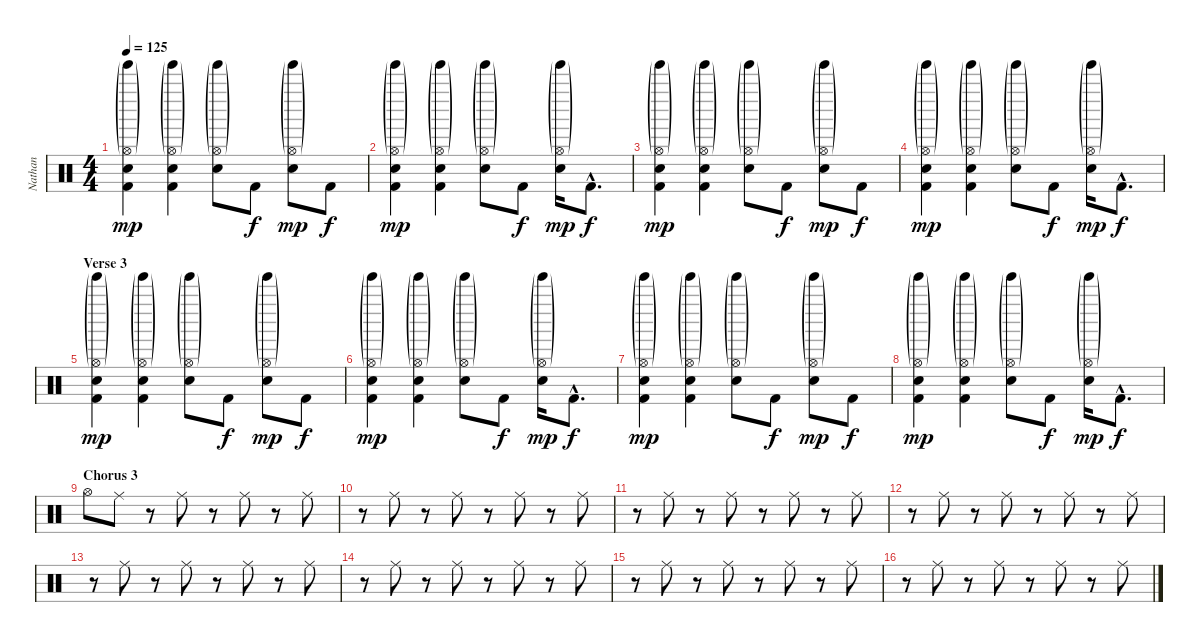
\track ("Nathan" "Nathan") {instrument percussion}
\staff {score}
\articulation defaults
\ts (4 4)
\section ("" "")
\tempo 125
\clef neutral
\ks c
("Hi-Hat (open)"{g} "Tinkle Bell (hit)"{g} "Electric Snare (hit)" "Kick (hit) 2").4{dy mp} ("Hi-Hat (open)"{g} "Tinkle Bell (hit)"{g} "Electric Snare (hit)" "Kick (hit) 2").4 ("Hi-Hat (open)"{g} "Tinkle Bell (hit)"{g} "Electric Snare (hit)").8 "Kick (hit) 2".8{dy f} ("Hi-Hat (open)"{g} "Tinkle Bell (hit)"{g} "Electric Snare (hit)").8{dy mp} "Kick (hit) 2".8{dy f} |
("Hi-Hat (open)"{g} "Tinkle Bell (hit)"{g} "Electric Snare (hit)" "Kick (hit) 2").4{dy mp} ("Hi-Hat (open)"{g} "Tinkle Bell (hit)"{g} "Electric Snare (hit)" "Kick (hit) 2").4 ("Hi-Hat (open)"{g} "Tinkle Bell (hit)"{g} "Electric Snare (hit)").8 "Kick (hit) 2".8{dy f} ("Hi-Hat (open)"{g} "Tinkle Bell (hit)"{g} "Electric Snare (hit)").16{dy mp} "Kick (hit) 2"{hac}.8{d dy f} |
("Hi-Hat (open)"{g} "Tinkle Bell (hit)"{g} "Electric Snare (hit)" "Kick (hit) 2").4{dy mp} ("Hi-Hat (open)"{g} "Tinkle Bell (hit)"{g} "Electric Snare (hit)" "Kick (hit) 2").4 ("Hi-Hat (open)"{g} "Tinkle Bell (hit)"{g} "Electric Snare (hit)").8 "Kick (hit) 2".8{dy f} ("Hi-Hat (open)"{g} "Tinkle Bell (hit)"{g} "Electric Snare (hit)").8{dy mp} "Kick (hit) 2".8{dy f} |
("Hi-Hat (open)"{g} "Tinkle Bell (hit)"{g} "Electric Snare (hit)" "Kick (hit) 2").4{dy mp} ("Hi-Hat (open)"{g} "Tinkle Bell (hit)"{g} "Electric Snare (hit)" "Kick (hit) 2").4 ("Hi-Hat (open)"{g} "Tinkle Bell (hit)"{g} "Electric Snare (hit)").8 "Kick (hit) 2".8{dy f} ("Hi-Hat (open)"{g} "Tinkle Bell (hit)"{g} "Electric Snare (hit)").16{dy mp} "Kick (hit) 2"{hac}.8{d dy f} |
\section ("" "Verse 3")
("Hi-Hat (open)"{g} "Tinkle Bell (hit)"{g} "Electric Snare (hit)" "Kick (hit) 2").4{dy mp} ("Hi-Hat (open)"{g} "Tinkle Bell (hit)"{g} "Electric Snare (hit)" "Kick (hit) 2").4 ("Hi-Hat (open)"{g} "Tinkle Bell (hit)"{g} "Electric Snare (hit)").8 "Kick (hit) 2".8{dy f} ("Hi-Hat (open)"{g} "Tinkle Bell (hit)"{g} "Electric Snare (hit)").8{dy mp} "Kick (hit) 2".8{dy f} |
("Hi-Hat (open)"{g} "Tinkle Bell (hit)"{g} "Electric Snare (hit)" "Kick (hit) 2").4{dy mp} ("Hi-Hat (open)"{g} "Tinkle Bell (hit)"{g} "Electric Snare (hit)" "Kick (hit) 2").4 ("Hi-Hat (open)"{g} "Tinkle Bell (hit)"{g} "Electric Snare (hit)").8 "Kick (hit) 2".8{dy f} ("Hi-Hat (open)"{g} "Tinkle Bell (hit)"{g} "Electric Snare (hit)").16{dy mp} "Kick (hit) 2"{hac}.8{d dy f} |
("Hi-Hat (open)"{g} "Tinkle Bell (hit)"{g} "Electric Snare (hit)" "Kick (hit) 2").4{dy mp} ("Hi-Hat (open)"{g} "Tinkle Bell (hit)"{g} "Electric Snare (hit)" "Kick (hit) 2").4 ("Hi-Hat (open)"{g} "Tinkle Bell (hit)"{g} "Electric Snare (hit)").8 "Kick (hit) 2".8{dy f} ("Hi-Hat (open)"{g} "Tinkle Bell (hit)"{g} "Electric Snare (hit)").8{dy mp} "Kick (hit) 2".8{dy f} |
("Hi-Hat (open)"{g} "Tinkle Bell (hit)"{g} "Electric Snare (hit)" "Kick (hit) 2").4{dy mp} ("Hi-Hat (open)"{g} "Tinkle Bell (hit)"{g} "Electric Snare (hit)" "Kick (hit) 2").4 ("Hi-Hat (open)"{g} "Tinkle Bell (hit)"{g} "Electric Snare (hit)").8 "Kick (hit) 2".8{dy f} ("Hi-Hat (open)"{g} "Tinkle Bell (hit)"{g} "Electric Snare (hit)").16{dy mp} "Kick (hit) 2"{hac}.8{d dy f} |
\section ("" "Chorus 3")
"Hi-Hat (open)".8 "Ride (middle)".8 r.8 "Ride (middle)".8 r.8 "Ride (middle)".8 r.8 "Ride (middle)".8 |
r.8 "Ride (middle)".8 r.8 "Ride (middle)".8 r.8 "Ride (middle)".8 r.8 "Ride (middle)".8 |
r.8 "Ride (middle)".8 r.8 "Ride (middle)".8 r.8 "Ride (middle)".8 r.8 "Ride (middle)".8 |
r.8 "Ride (middle)".8 r.8 "Ride (middle)".8 r.8 "Ride (middle)".8 r.8 "Ride (middle)".8 |
r.8 "Ride (middle)".8 r.8 "Ride (middle)".8 r.8 "Ride (middle)".8 r.8 "Ride (middle)".8 |
r.8 "Ride (middle)".8 r.8 "Ride (middle)".8 r.8 "Ride (middle)".8 r.8 "Ride (middle)".8 |
r.8 "Ride (middle)".8 r.8 "Ride (middle)".8 r.8 "Ride (middle)".8 r.8 "Ride (middle)".8 |
r.8 "Ride (middle)".8 r.8 "Ride (middle)".8 r.8 "Ride (middle)".8 r.8 "Ride (middle)".8
